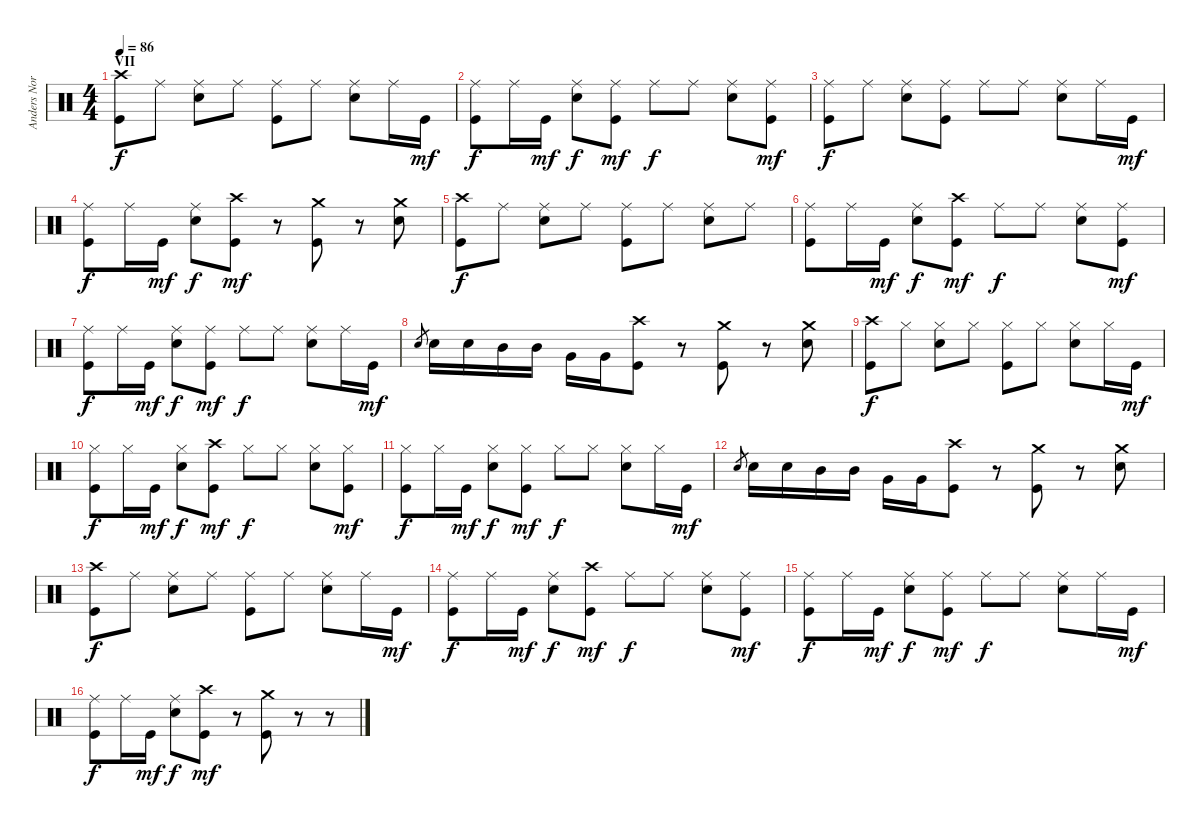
\track ("Anders Nordin - Drums" "Anders Nor") {instrument percussion}
\staff {score}
\articulation defaults
\ts (4 4)
\section ("" "VII")
\tempo 86
\clef neutral
\ks c
("Crash high (hit)" "Kick (hit)").8{dy f} "Ride (middle)".8 ("Ride (middle)" "Snare (hit) 2").8 "Ride (middle)".8 ("Ride (middle)" "Kick (hit)").8 "Ride (middle)".8 ("Ride (middle)" "Snare (hit) 2").8 "Ride (middle)".16 "Kick (hit)".16{dy mf} |
("Ride (middle)" "Kick (hit)").8{dy f} "Ride (middle)".16 "Kick (hit)".16{dy mf} ("Ride (middle)" "Snare (hit) 2").8{dy f} ("Ride (middle)" "Kick (hit)").8{dy mf} "Ride (middle)".8{dy f} "Ride (middle)".8 ("Ride (middle)" "Snare (hit) 2").8 ("Ride (middle)" "Kick (hit)").8{dy mf} |
("Ride (middle)" "Kick (hit)").8{dy f} "Ride (middle)".8 ("Ride (middle)" "Snare (hit) 2").8 ("Ride (middle)" "Kick (hit)").8 "Ride (middle)".8 "Ride (middle)".8 ("Ride (middle)" "Snare (hit) 2").8 "Ride (middle)".16 "Kick (hit)".16{dy mf} |
("Ride (middle)" "Kick (hit)").8{dy f} "Ride (middle)".16 "Kick (hit)".16{dy mf} ("Ride (middle)" "Snare (hit) 2").8{dy f} ("Crash high (hit)" "Kick (hit)").8{dy mf} r.8 ("Crash medium (hit)" "Kick (hit)").8 r.8 ("Crash medium (hit)" "Snare (hit) 2").8 |
("Crash high (hit)" "Kick (hit)").8{dy f} "Ride (middle)".8 ("Ride (middle)" "Snare (hit) 2").8 "Ride (middle)".8 ("Ride (middle)" "Kick (hit)").8 "Ride (middle)".8 ("Ride (middle)" "Snare (hit) 2").8 "Ride (middle)".8 |
("Ride (middle)" "Kick (hit)").8 "Ride (middle)".16 "Kick (hit)".16{dy mf} ("Ride (middle)" "Snare (hit) 2").8{dy f} ("Crash high (hit)" "Kick (hit)").8{dy mf} "Ride (middle)".8{dy f} "Ride (middle)".8 ("Ride (middle)" "Snare (hit) 2").8 ("Ride (middle)" "Kick (hit)").8{dy mf} |
("Ride (middle)" "Kick (hit)").8{dy f} "Ride (middle)".16 "Kick (hit)".16{dy mf} ("Ride (middle)" "Snare (hit) 2").8{dy f} ("Ride (middle)" "Kick (hit)").8{dy mf} "Ride (middle)".8{dy f} "Ride (middle)".8 ("Ride (middle)" "Snare (hit) 2").8 "Ride (middle)".16 "Kick (hit)".16{dy mf} |
"Snare (hit) 2".8{gr} "Snare (hit) 2".16 "Snare (hit) 2".16 "Mid Tom (hit)".16 "Mid Tom (hit)".16 "Very Low Tom (hit)".16 "Very Low Tom (hit)".16 ("Crash high (hit)" "Kick (hit)").8 r.8 ("Crash medium (hit)" "Kick (hit)").8 r.8 ("Crash medium (hit)" "Snare (hit) 2").8 |
("Crash high (hit)" "Kick (hit)").8{dy f} "Hi-Hat (closed)".8 ("Hi-Hat (closed)" "Snare (hit) 2").8 "Hi-Hat (closed)".8 ("Hi-Hat (closed)" "Kick (hit)").8 "Hi-Hat (closed)".8 ("Hi-Hat (closed)" "Snare (hit) 2").8 "Hi-Hat (closed)".16 "Kick (hit)".16{dy mf} |
("Hi-Hat (closed)" "Kick (hit)").8{dy f} "Hi-Hat (closed)".16 "Kick (hit)".16{dy mf} ("Hi-Hat (closed)" "Snare (hit) 2").8{dy f} ("Crash high (hit)" "Kick (hit)").8{dy mf} "Hi-Hat (closed)".8{dy f} "Hi-Hat (closed)".8 ("Hi-Hat (closed)" "Snare (hit) 2").8 ("Hi-Hat (closed)" "Kick (hit)").8{dy mf} |
("Hi-Hat (closed)" "Kick (hit)").8{dy f} "Hi-Hat (closed)".16 "Kick (hit)".16{dy mf} ("Hi-Hat (closed)" "Snare (hit) 2").8{dy f} ("Hi-Hat (closed)" "Kick (hit)").8{dy mf} "Hi-Hat (closed)".8{dy f} "Hi-Hat (closed)".8 ("Hi-Hat (closed)" "Snare (hit) 2").8 "Hi-Hat (closed)".16 "Kick (hit)".16{dy mf} |
"Snare (hit) 2".8{gr} "Snare (hit) 2".16 "Snare (hit) 2".16 "Mid Tom (hit)".16 "Mid Tom (hit)".16 "Very Low Tom (hit)".16 "Very Low Tom (hit)".16 ("Crash high (hit)" "Kick (hit)").8 r.8 ("Crash medium (hit)" "Kick (hit)").8 r.8 ("Crash medium (hit)" "Snare (hit) 2").8 |
("Crash high (hit)" "Kick (hit)").8{dy f} "Ride (middle)".8 ("Ride (middle)" "Snare (hit) 2").8 "Ride (middle)".8 ("Ride (middle)" "Kick (hit)").8 "Ride (middle)".8 ("Ride (middle)" "Snare (hit) 2").8 "Ride (middle)".16 "Kick (hit)".16{dy mf} |
("Ride (middle)" "Kick (hit)").8{dy f} "Ride (middle)".16 "Kick (hit)".16{dy mf} ("Ride (middle)" "Snare (hit) 2").8{dy f} ("Crash high (hit)" "Kick (hit)").8{dy mf} "Ride (middle)".8{dy f} "Ride (middle)".8 ("Ride (middle)" "Snare (hit) 2").8 ("Ride (middle)" "Kick (hit)").8{dy mf} |
("Ride (middle)" "Kick (hit)").8{dy f} "Ride (middle)".16 "Kick (hit)".16{dy mf} ("Ride (middle)" "Snare (hit) 2").8{dy f} ("Ride (middle)" "Kick (hit)").8{dy mf} "Ride (middle)".8{dy f} "Ride (middle)".8 ("Ride (middle)" "Snare (hit) 2").8 "Ride (middle)".16 "Kick (hit)".16{dy mf} |
("Ride (middle)" "Kick (hit)").8{dy f} "Ride (middle)".16 "Kick (hit)".16{dy mf} ("Ride (middle)" "Snare (hit) 2").8{dy f} ("Crash high (hit)" "Kick (hit)").8{dy mf} r.8 ("Crash medium (hit)" "Kick (hit)").8 r.8 r.8
